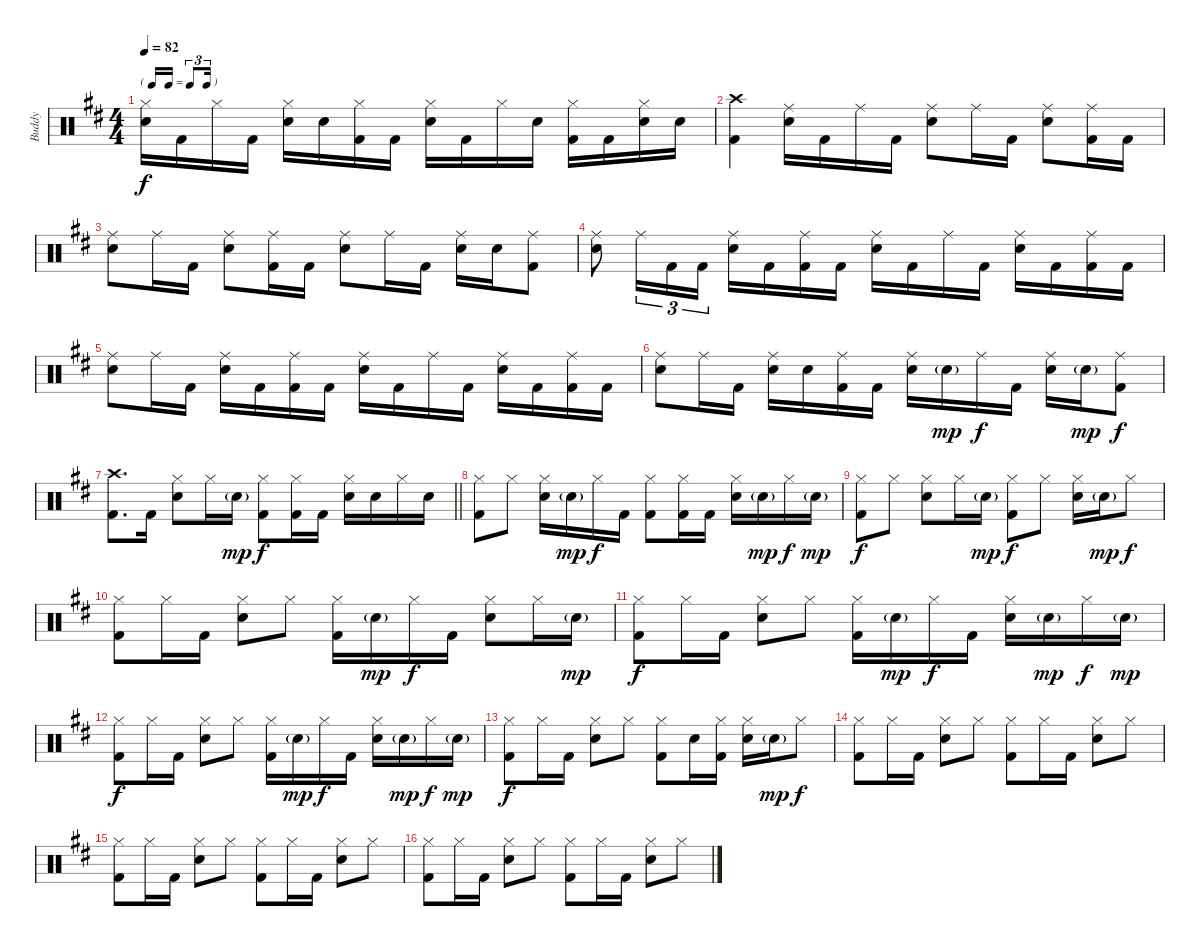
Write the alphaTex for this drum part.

\track ("Buddy" "Buddy") {instrument percussion}
\staff {score}
\articulation defaults
\ts (4 4)
\tf triplet16th
\tempo 82
\clef neutral
\ks d
("Hi-Hat (closed)" "Snare (hit) 2").16{dy f} "Kick (hit) 2".16 "Hi-Hat (closed)".16 "Kick (hit) 2".16 ("Hi-Hat (closed)" "Snare (hit) 2").16 "Snare (hit) 2".16 ("Hi-Hat (closed)" "Kick (hit) 2").16 "Kick (hit) 2".16 ("Hi-Hat (closed)" "Snare (hit) 2").16 "Kick (hit) 2".16 "Hi-Hat (closed)".16 "Snare (hit) 2".16 ("Hi-Hat (closed)" "Kick (hit) 2").16 "Kick (hit) 2".16 ("Hi-Hat (closed)" "Snare (hit) 2").16 "Snare (hit) 2".16 |
("Crash high (hit)" "Kick (hit) 2").4 ("Ride (middle)" "Snare (hit) 2").16 "Kick (hit) 2".16 "Ride (middle)".16 "Kick (hit) 2".16 ("Ride (middle)" "Snare (hit) 2").8 "Ride (middle)".16 "Kick (hit) 2".16 ("Ride (middle)" "Snare (hit) 2").8 ("Ride (middle)" "Kick (hit) 2").16 "Kick (hit) 2".16 |
("Ride (middle)" "Snare (hit) 2").8 "Ride (middle)".16 "Kick (hit) 2".16 ("Ride (middle)" "Snare (hit) 2").8 ("Ride (middle)" "Kick (hit) 2").16 "Kick (hit) 2".16 ("Ride (middle)" "Snare (hit) 2").8 "Ride (middle)".16 "Kick (hit) 2".16 ("Ride (middle)" "Snare (hit) 2").16 "Snare (hit) 2".16 ("Ride (middle)" "Kick (hit) 2").8 |
("Ride (middle)" "Snare (hit) 2").8 "Ride (middle)".16{tu (3 2)} "Kick (hit) 2".16{tu (3 2)} "Kick (hit) 2".16{tu (3 2)} ("Ride (middle)" "Snare (hit) 2").16 "Kick (hit) 2".16 ("Ride (middle)" "Kick (hit) 2").16 "Kick (hit) 2".16 ("Ride (middle)" "Snare (hit) 2").16 "Kick (hit) 2".16 "Ride (middle)".16 "Kick (hit) 2".16 ("Ride (middle)" "Snare (hit) 2").16 "Kick (hit) 2".16 ("Ride (middle)" "Kick (hit) 2").16 "Kick (hit) 2".16 |
("Ride (middle)" "Snare (hit) 2").8 "Ride (middle)".16 "Kick (hit) 2".16 ("Ride (middle)" "Snare (hit) 2").16 "Kick (hit) 2".16 ("Ride (middle)" "Kick (hit) 2").16 "Kick (hit) 2".16 ("Ride (middle)" "Snare (hit) 2").16 "Kick (hit) 2".16 "Ride (middle)".16 "Kick (hit) 2".16 ("Ride (middle)" "Snare (hit) 2").16 "Kick (hit) 2".16 ("Ride (middle)" "Kick (hit) 2").16 "Kick (hit) 2".16 |
("Ride (middle)" "Snare (hit) 2").8 "Ride (middle)".16 "Kick (hit) 2".16 ("Ride (middle)" "Snare (hit) 2").16 "Snare (hit) 2".16 ("Ride (middle)" "Kick (hit) 2").16 "Kick (hit) 2".16 ("Ride (middle)" "Snare (hit) 2").16 "Snare (hit) 2"{g}.16{dy mp} "Ride (middle)".16{dy f} "Kick (hit) 2".16 ("Ride (middle)" "Snare (hit) 2").16 "Snare (hit) 2"{g}.16{dy mp} ("Ride (middle)" "Kick (hit) 2").8{dy f} |
\barLineRight lightlight
("Crash high (hit)" "Kick (hit) 2").8{d} "Kick (hit) 2".16 ("Hi-Hat (closed)" "Snare (hit) 2").8 "Hi-Hat (closed)".16 "Snare (hit) 2"{g}.16{dy mp} ("Hi-Hat (closed)" "Kick (hit) 2").8{dy f} ("Hi-Hat (closed)" "Kick (hit) 2").16 "Kick (hit) 2".16 ("Hi-Hat (closed)" "Snare (hit) 2").16 "Snare (hit) 2".16 "Hi-Hat (closed)".16 "Snare (hit) 2".16 |
("Hi-Hat (closed)" "Kick (hit) 2").8 "Hi-Hat (closed)".8 ("Hi-Hat (closed)" "Snare (hit) 2").16 "Snare (hit) 2"{g}.16{dy mp} "Hi-Hat (closed)".16{dy f} "Kick (hit) 2".16 ("Hi-Hat (closed)" "Kick (hit) 2").8 ("Hi-Hat (closed)" "Kick (hit) 2").16 "Kick (hit) 2".16 ("Hi-Hat (closed)" "Snare (hit) 2").16 "Snare (hit) 2"{g}.16{dy mp} "Hi-Hat (closed)".16{dy f} "Snare (hit) 2"{g}.16{dy mp} |
("Hi-Hat (closed)" "Kick (hit) 2").8{dy f} "Hi-Hat (closed)".8 ("Hi-Hat (closed)" "Snare (hit) 2").8 "Hi-Hat (closed)".16 "Snare (hit) 2"{g}.16{dy mp} ("Hi-Hat (closed)" "Kick (hit) 2").8{dy f} "Hi-Hat (closed)".8 ("Hi-Hat (closed)" "Snare (hit) 2").16 "Snare (hit) 2"{g}.16{dy mp} "Hi-Hat (closed)".8{dy f} |
("Hi-Hat (closed)" "Kick (hit) 2").8 "Hi-Hat (closed)".16 "Kick (hit) 2".16 ("Hi-Hat (closed)" "Snare (hit) 2").8 "Hi-Hat (closed)".8 ("Hi-Hat (closed)" "Kick (hit) 2").16 "Snare (hit) 2"{g}.16{dy mp} "Hi-Hat (closed)".16{dy f} "Kick (hit) 2".16 ("Hi-Hat (closed)" "Snare (hit) 2").8 "Hi-Hat (closed)".16 "Snare (hit) 2"{g}.16{dy mp} |
("Hi-Hat (closed)" "Kick (hit) 2").8{dy f} "Hi-Hat (closed)".16 "Kick (hit) 2".16 ("Hi-Hat (closed)" "Snare (hit) 2").8 "Hi-Hat (closed)".8 ("Hi-Hat (closed)" "Kick (hit) 2").16 "Snare (hit) 2"{g}.16{dy mp} "Hi-Hat (closed)".16{dy f} "Kick (hit) 2".16 ("Hi-Hat (closed)" "Snare (hit) 2").16 "Snare (hit) 2"{g}.16{dy mp} "Hi-Hat (closed)".16{dy f} "Snare (hit) 2"{g}.16{dy mp} |
("Hi-Hat (closed)" "Kick (hit) 2").8{dy f} "Hi-Hat (closed)".16 "Kick (hit) 2".16 ("Hi-Hat (closed)" "Snare (hit) 2").8 "Hi-Hat (closed)".8 ("Hi-Hat (closed)" "Kick (hit) 2").16 "Snare (hit) 2"{g}.16{dy mp} "Hi-Hat (closed)".16{dy f} "Kick (hit) 2".16 ("Hi-Hat (closed)" "Snare (hit) 2").16 "Snare (hit) 2"{g}.16{dy mp} "Hi-Hat (closed)".16{dy f} "Snare (hit) 2"{g}.16{dy mp} |
("Hi-Hat (closed)" "Kick (hit) 2").8{dy f} "Hi-Hat (closed)".16 "Kick (hit) 2".16 ("Hi-Hat (closed)" "Snare (hit) 2").8 "Hi-Hat (closed)".8 ("Hi-Hat (closed)" "Kick (hit) 2").8 "Snare (hit) 2".16 ("Hi-Hat (closed)" "Kick (hit) 2").16 ("Hi-Hat (closed)" "Snare (hit) 2").16 "Snare (hit) 2"{g}.16{dy mp} "Hi-Hat (closed)".8{dy f} |
("Hi-Hat (closed)" "Kick (hit) 2").8 "Hi-Hat (closed)".16 "Kick (hit) 2".16 ("Hi-Hat (closed)" "Snare (hit) 2").8 "Hi-Hat (closed)".8 ("Hi-Hat (closed)" "Kick (hit) 2").8 "Hi-Hat (closed)".16 "Kick (hit) 2".16 ("Hi-Hat (closed)" "Snare (hit) 2").8 "Hi-Hat (closed)".8 |
("Hi-Hat (closed)" "Kick (hit) 2").8 "Hi-Hat (closed)".16 "Kick (hit) 2".16 ("Hi-Hat (closed)" "Snare (hit) 2").8 "Hi-Hat (closed)".8 ("Hi-Hat (closed)" "Kick (hit) 2").8 "Hi-Hat (closed)".16 "Kick (hit) 2".16 ("Hi-Hat (closed)" "Snare (hit) 2").8 "Hi-Hat (closed)".8 |
("Hi-Hat (closed)" "Kick (hit) 2").8 "Hi-Hat (closed)".16 "Kick (hit) 2".16 ("Hi-Hat (closed)" "Snare (hit) 2").8 "Hi-Hat (closed)".8 ("Hi-Hat (closed)" "Kick (hit) 2").8 "Hi-Hat (closed)".16 "Kick (hit) 2".16 ("Hi-Hat (closed)" "Snare (hit) 2").8 "Hi-Hat (closed)".8
